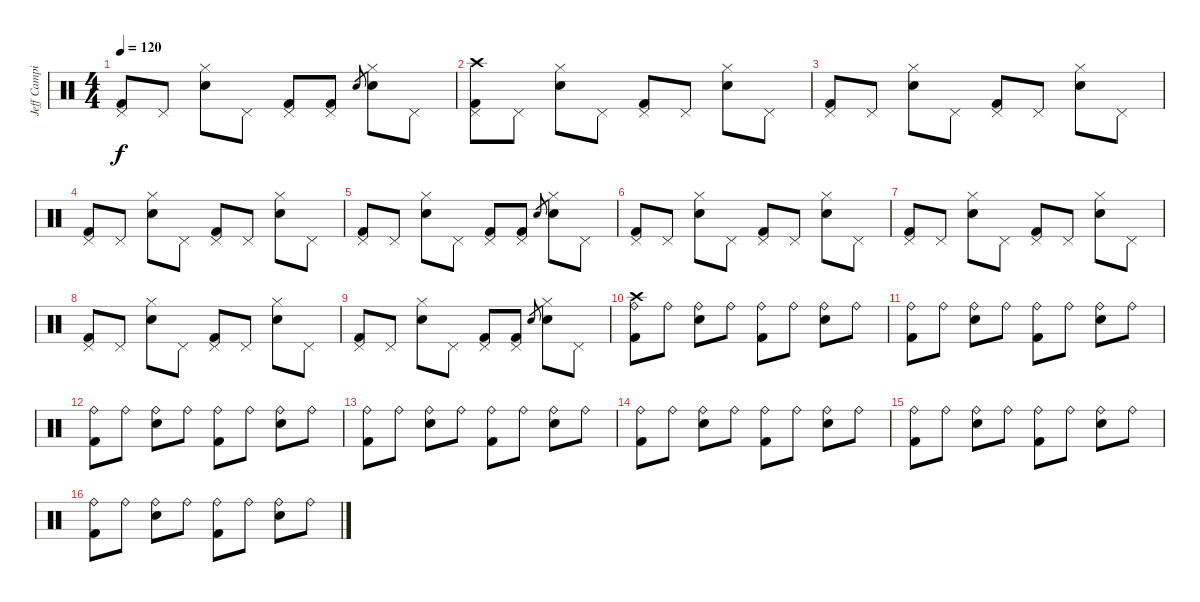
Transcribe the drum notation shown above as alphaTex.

\track ("Jeff Campitelli" "Jeff Campi") {instrument percussion}
\staff {score}
\articulation defaults
\ts (4 4)
\tempo 120
\clef neutral
\ks c
("Pedal Hi-Hat (hit)" "Kick (hit) 2").8{dy f} "Pedal Hi-Hat (hit)".8 ("Hi-Hat (closed)" "Snare (hit) 2").8 "Pedal Hi-Hat (hit)".8 ("Pedal Hi-Hat (hit)" "Kick (hit) 2").8 ("Pedal Hi-Hat (hit)" "Kick (hit) 2").8 "Snare (hit) 2".8{gr} ("Hi-Hat (closed)" "Snare (hit) 2").8 "Pedal Hi-Hat (hit)".8 |
("Crash high (hit)" "Pedal Hi-Hat (hit)" "Kick (hit) 2").8 "Pedal Hi-Hat (hit)".8 ("Hi-Hat (closed)" "Snare (hit) 2").8 "Pedal Hi-Hat (hit)".8 ("Pedal Hi-Hat (hit)" "Kick (hit) 2").8 "Pedal Hi-Hat (hit)".8 ("Hi-Hat (closed)" "Snare (hit) 2").8 "Pedal Hi-Hat (hit)".8 |
("Pedal Hi-Hat (hit)" "Kick (hit) 2").8 "Pedal Hi-Hat (hit)".8 ("Hi-Hat (closed)" "Snare (hit) 2").8 "Pedal Hi-Hat (hit)".8 ("Pedal Hi-Hat (hit)" "Kick (hit) 2").8 "Pedal Hi-Hat (hit)".8 ("Hi-Hat (closed)" "Snare (hit) 2").8 "Pedal Hi-Hat (hit)".8 |
("Pedal Hi-Hat (hit)" "Kick (hit) 2").8 "Pedal Hi-Hat (hit)".8 ("Hi-Hat (closed)" "Snare (hit) 2").8 "Pedal Hi-Hat (hit)".8 ("Pedal Hi-Hat (hit)" "Kick (hit) 2").8 "Pedal Hi-Hat (hit)".8 ("Hi-Hat (closed)" "Snare (hit) 2").8 "Pedal Hi-Hat (hit)".8 |
("Pedal Hi-Hat (hit)" "Kick (hit) 2").8 "Pedal Hi-Hat (hit)".8 ("Hi-Hat (closed)" "Snare (hit) 2").8 "Pedal Hi-Hat (hit)".8 ("Pedal Hi-Hat (hit)" "Kick (hit) 2").8 ("Pedal Hi-Hat (hit)" "Kick (hit) 2").8 "Snare (hit) 2".8{gr} ("Hi-Hat (closed)" "Snare (hit) 2").8 "Pedal Hi-Hat (hit)".8 |
("Pedal Hi-Hat (hit)" "Kick (hit) 2").8 "Pedal Hi-Hat (hit)".8 ("Hi-Hat (closed)" "Snare (hit) 2").8 "Pedal Hi-Hat (hit)".8 ("Pedal Hi-Hat (hit)" "Kick (hit) 2").8 "Pedal Hi-Hat (hit)".8 ("Hi-Hat (closed)" "Snare (hit) 2").8 "Pedal Hi-Hat (hit)".8 |
("Pedal Hi-Hat (hit)" "Kick (hit) 2").8 "Pedal Hi-Hat (hit)".8 ("Hi-Hat (closed)" "Snare (hit) 2").8 "Pedal Hi-Hat (hit)".8 ("Pedal Hi-Hat (hit)" "Kick (hit) 2").8 "Pedal Hi-Hat (hit)".8 ("Hi-Hat (closed)" "Snare (hit) 2").8 "Pedal Hi-Hat (hit)".8 |
("Pedal Hi-Hat (hit)" "Kick (hit) 2").8 "Pedal Hi-Hat (hit)".8 ("Hi-Hat (closed)" "Snare (hit) 2").8 "Pedal Hi-Hat (hit)".8 ("Pedal Hi-Hat (hit)" "Kick (hit) 2").8 "Pedal Hi-Hat (hit)".8 ("Hi-Hat (closed)" "Snare (hit) 2").8 "Pedal Hi-Hat (hit)".8 |
("Pedal Hi-Hat (hit)" "Kick (hit) 2").8 "Pedal Hi-Hat (hit)".8 ("Hi-Hat (closed)" "Snare (hit) 2").8 "Pedal Hi-Hat (hit)".8 ("Pedal Hi-Hat (hit)" "Kick (hit) 2").8 ("Pedal Hi-Hat (hit)" "Kick (hit) 2").8 "Snare (hit) 2".8{gr} ("Hi-Hat (closed)" "Snare (hit) 2").8 "Pedal Hi-Hat (hit)".8 |
("Crash high (hit)" "Ride (bell)" "Kick (hit) 2").8 "Ride (bell)".8 ("Ride (bell)" "Snare (hit) 2").8 "Ride (bell)".8 ("Ride (bell)" "Kick (hit) 2").8 "Ride (bell)".8 ("Ride (bell)" "Snare (hit) 2").8 "Ride (bell)".8 |
("Ride (bell)" "Kick (hit) 2").8 "Ride (bell)".8 ("Ride (bell)" "Snare (hit) 2").8 "Ride (bell)".8 ("Ride (bell)" "Kick (hit) 2").8 "Ride (bell)".8 ("Ride (bell)" "Snare (hit) 2").8 "Ride (bell)".8 |
("Ride (bell)" "Kick (hit) 2").8 "Ride (bell)".8 ("Ride (bell)" "Snare (hit) 2").8 "Ride (bell)".8 ("Ride (bell)" "Kick (hit) 2").8 "Ride (bell)".8 ("Ride (bell)" "Snare (hit) 2").8 "Ride (bell)".8 |
("Ride (bell)" "Kick (hit) 2").8 "Ride (bell)".8 ("Ride (bell)" "Snare (hit) 2").8 "Ride (bell)".8 ("Ride (bell)" "Kick (hit) 2").8 "Ride (bell)".8 ("Ride (bell)" "Snare (hit) 2").8 "Ride (bell)".8 |
("Ride (bell)" "Kick (hit) 2").8 "Ride (bell)".8 ("Ride (bell)" "Snare (hit) 2").8 "Ride (bell)".8 ("Ride (bell)" "Kick (hit) 2").8 "Ride (bell)".8 ("Ride (bell)" "Snare (hit) 2").8 "Ride (bell)".8 |
("Ride (bell)" "Kick (hit) 2").8 "Ride (bell)".8 ("Ride (bell)" "Snare (hit) 2").8 "Ride (bell)".8 ("Ride (bell)" "Kick (hit) 2").8 "Ride (bell)".8 ("Ride (bell)" "Snare (hit) 2").8 "Ride (bell)".8 |
("Ride (bell)" "Kick (hit) 2").8 "Ride (bell)".8 ("Ride (bell)" "Snare (hit) 2").8 "Ride (bell)".8 ("Ride (bell)" "Kick (hit) 2").8 "Ride (bell)".8 ("Ride (bell)" "Snare (hit) 2").8 "Ride (bell)".8
